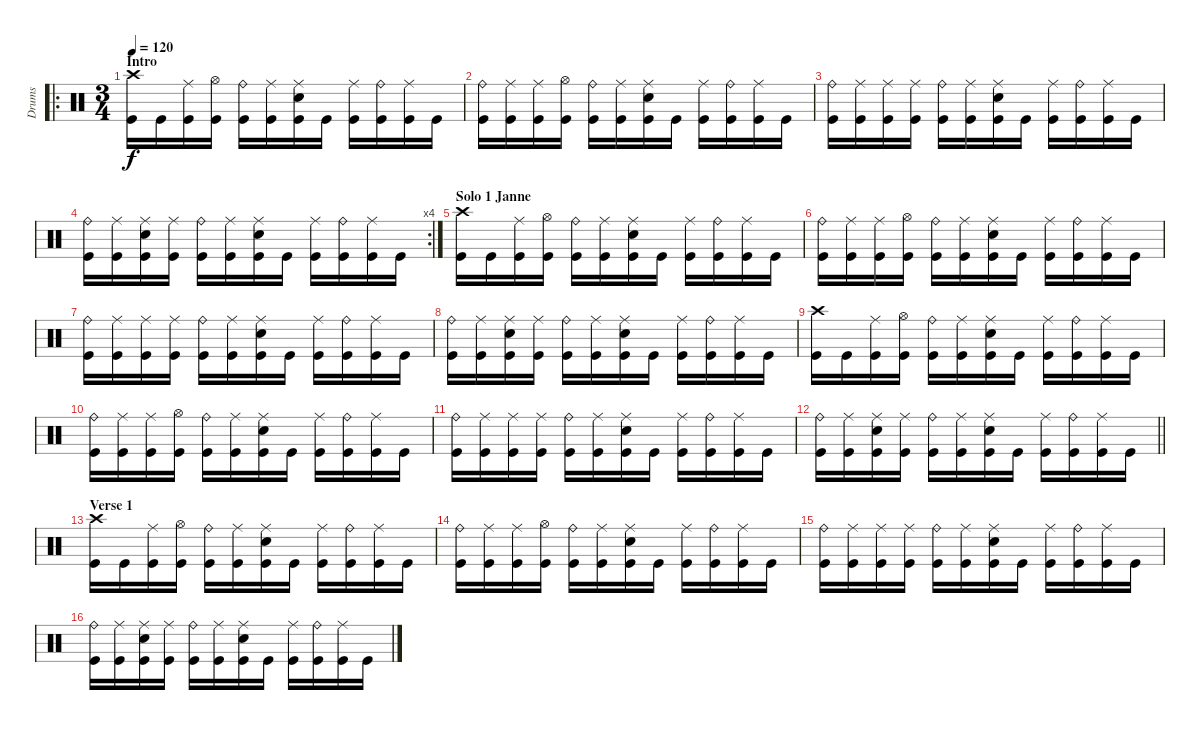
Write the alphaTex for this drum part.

\track ("Drums" "Drums") {instrument percussion}
\staff {score}
\articulation defaults
\ro
\ts (3 4)
\section ("" "Intro")
\tempo 120
\clef neutral
\ks c
("Crash high (hit)" "Kick (hit)").16{dy f} "Kick (hit)".16 ("Ride (middle)" "Kick (hit)").16 ("Hi-Hat (open)" "Kick (hit)").16 ("Ride (bell)" "Kick (hit)").16 ("Ride (middle)" "Kick (hit)").16 ("Ride (middle)" "Electric Snare (hit)" "Kick (hit)").16 "Kick (hit)".16 ("Ride (middle)" "Kick (hit)").16 ("Ride (bell)" "Kick (hit)").16 ("Ride (middle)" "Kick (hit)").16 "Kick (hit)".16 |
("Ride (bell)" "Kick (hit)").16 ("Ride (middle)" "Kick (hit)").16 ("Ride (middle)" "Kick (hit)").16 ("Hi-Hat (open)" "Kick (hit)").16 ("Ride (bell)" "Kick (hit)").16 ("Ride (middle)" "Kick (hit)").16 ("Ride (middle)" "Electric Snare (hit)" "Kick (hit)").16 "Kick (hit)".16 ("Ride (middle)" "Kick (hit)").16 ("Ride (bell)" "Kick (hit)").16 ("Ride (middle)" "Kick (hit)").16 "Kick (hit)".16 |
("Ride (bell)" "Kick (hit)").16 ("Ride (middle)" "Kick (hit)").16 ("Ride (middle)" "Kick (hit)").16 ("Ride (middle)" "Kick (hit)").16 ("Ride (bell)" "Kick (hit)").16 ("Ride (middle)" "Kick (hit)").16 ("Ride (middle)" "Electric Snare (hit)" "Kick (hit)").16 "Kick (hit)".16 ("Ride (middle)" "Kick (hit)").16 ("Ride (bell)" "Kick (hit)").16 ("Ride (middle)" "Kick (hit)").16 "Kick (hit)".16 |
\rc 4
("Ride (bell)" "Kick (hit)").16 ("Ride (middle)" "Kick (hit)").16 ("Ride (middle)" "Electric Snare (hit)" "Kick (hit)").16 ("Ride (middle)" "Kick (hit)").16 ("Ride (bell)" "Kick (hit)").16 ("Ride (middle)" "Kick (hit)").16 ("Ride (middle)" "Electric Snare (hit)" "Kick (hit)").16 "Kick (hit)".16 ("Ride (middle)" "Kick (hit)").16 ("Ride (bell)" "Kick (hit)").16 ("Ride (middle)" "Kick (hit)").16 "Kick (hit)".16 |
\section ("" "Solo 1 Janne")
("Crash high (hit)" "Kick (hit)").16 "Kick (hit)".16 ("Ride (middle)" "Kick (hit)").16 ("Hi-Hat (open)" "Kick (hit)").16 ("Ride (bell)" "Kick (hit)").16 ("Ride (middle)" "Kick (hit)").16 ("Ride (middle)" "Electric Snare (hit)" "Kick (hit)").16 "Kick (hit)".16 ("Ride (middle)" "Kick (hit)").16 ("Ride (bell)" "Kick (hit)").16 ("Ride (middle)" "Kick (hit)").16 "Kick (hit)".16 |
("Ride (bell)" "Kick (hit)").16 ("Ride (middle)" "Kick (hit)").16 ("Ride (middle)" "Kick (hit)").16 ("Hi-Hat (open)" "Kick (hit)").16 ("Ride (bell)" "Kick (hit)").16 ("Ride (middle)" "Kick (hit)").16 ("Ride (middle)" "Electric Snare (hit)" "Kick (hit)").16 "Kick (hit)".16 ("Ride (middle)" "Kick (hit)").16 ("Ride (bell)" "Kick (hit)").16 ("Ride (middle)" "Kick (hit)").16 "Kick (hit)".16 |
("Ride (bell)" "Kick (hit)").16 ("Ride (middle)" "Kick (hit)").16 ("Ride (middle)" "Kick (hit)").16 ("Ride (middle)" "Kick (hit)").16 ("Ride (bell)" "Kick (hit)").16 ("Ride (middle)" "Kick (hit)").16 ("Ride (middle)" "Electric Snare (hit)" "Kick (hit)").16 "Kick (hit)".16 ("Ride (middle)" "Kick (hit)").16 ("Ride (bell)" "Kick (hit)").16 ("Ride (middle)" "Kick (hit)").16 "Kick (hit)".16 |
("Ride (bell)" "Kick (hit)").16 ("Ride (middle)" "Kick (hit)").16 ("Ride (middle)" "Electric Snare (hit)" "Kick (hit)").16 ("Ride (middle)" "Kick (hit)").16 ("Ride (bell)" "Kick (hit)").16 ("Ride (middle)" "Kick (hit)").16 ("Ride (middle)" "Electric Snare (hit)" "Kick (hit)").16 "Kick (hit)".16 ("Ride (middle)" "Kick (hit)").16 ("Ride (bell)" "Kick (hit)").16 ("Ride (middle)" "Kick (hit)").16 "Kick (hit)".16 |
("Crash high (hit)" "Kick (hit)").16 "Kick (hit)".16 ("Ride (middle)" "Kick (hit)").16 ("Hi-Hat (open)" "Kick (hit)").16 ("Ride (bell)" "Kick (hit)").16 ("Ride (middle)" "Kick (hit)").16 ("Ride (middle)" "Electric Snare (hit)" "Kick (hit)").16 "Kick (hit)".16 ("Ride (middle)" "Kick (hit)").16 ("Ride (bell)" "Kick (hit)").16 ("Ride (middle)" "Kick (hit)").16 "Kick (hit)".16 |
("Ride (bell)" "Kick (hit)").16 ("Ride (middle)" "Kick (hit)").16 ("Ride (middle)" "Kick (hit)").16 ("Hi-Hat (open)" "Kick (hit)").16 ("Ride (bell)" "Kick (hit)").16 ("Ride (middle)" "Kick (hit)").16 ("Ride (middle)" "Electric Snare (hit)" "Kick (hit)").16 "Kick (hit)".16 ("Ride (middle)" "Kick (hit)").16 ("Ride (bell)" "Kick (hit)").16 ("Ride (middle)" "Kick (hit)").16 "Kick (hit)".16 |
("Ride (bell)" "Kick (hit)").16 ("Ride (middle)" "Kick (hit)").16 ("Ride (middle)" "Kick (hit)").16 ("Ride (middle)" "Kick (hit)").16 ("Ride (bell)" "Kick (hit)").16 ("Ride (middle)" "Kick (hit)").16 ("Ride (middle)" "Electric Snare (hit)" "Kick (hit)").16 "Kick (hit)".16 ("Ride (middle)" "Kick (hit)").16 ("Ride (bell)" "Kick (hit)").16 ("Ride (middle)" "Kick (hit)").16 "Kick (hit)".16 |
\barLineRight lightlight
("Ride (bell)" "Kick (hit)").16 ("Ride (middle)" "Kick (hit)").16 ("Ride (middle)" "Electric Snare (hit)" "Kick (hit)").16 ("Ride (middle)" "Kick (hit)").16 ("Ride (bell)" "Kick (hit)").16 ("Ride (middle)" "Kick (hit)").16 ("Ride (middle)" "Electric Snare (hit)" "Kick (hit)").16 "Kick (hit)".16 ("Ride (middle)" "Kick (hit)").16 ("Ride (bell)" "Kick (hit)").16 ("Ride (middle)" "Kick (hit)").16 "Kick (hit)".16 |
\section ("" "Verse 1")
("Crash high (hit)" "Kick (hit)").16 "Kick (hit)".16 ("Ride (middle)" "Kick (hit)").16 ("Hi-Hat (open)" "Kick (hit)").16 ("Ride (bell)" "Kick (hit)").16 ("Ride (middle)" "Kick (hit)").16 ("Ride (middle)" "Electric Snare (hit)" "Kick (hit)").16 "Kick (hit)".16 ("Ride (middle)" "Kick (hit)").16 ("Ride (bell)" "Kick (hit)").16 ("Ride (middle)" "Kick (hit)").16 "Kick (hit)".16 |
("Ride (bell)" "Kick (hit)").16 ("Ride (middle)" "Kick (hit)").16 ("Ride (middle)" "Kick (hit)").16 ("Hi-Hat (open)" "Kick (hit)").16 ("Ride (bell)" "Kick (hit)").16 ("Ride (middle)" "Kick (hit)").16 ("Ride (middle)" "Electric Snare (hit)" "Kick (hit)").16 "Kick (hit)".16 ("Ride (middle)" "Kick (hit)").16 ("Ride (bell)" "Kick (hit)").16 ("Ride (middle)" "Kick (hit)").16 "Kick (hit)".16 |
("Ride (bell)" "Kick (hit)").16 ("Ride (middle)" "Kick (hit)").16 ("Ride (middle)" "Kick (hit)").16 ("Ride (middle)" "Kick (hit)").16 ("Ride (bell)" "Kick (hit)").16 ("Ride (middle)" "Kick (hit)").16 ("Ride (middle)" "Electric Snare (hit)" "Kick (hit)").16 "Kick (hit)".16 ("Ride (middle)" "Kick (hit)").16 ("Ride (bell)" "Kick (hit)").16 ("Ride (middle)" "Kick (hit)").16 "Kick (hit)".16 |
("Ride (bell)" "Kick (hit)").16 ("Ride (middle)" "Kick (hit)").16 ("Ride (middle)" "Electric Snare (hit)" "Kick (hit)").16 ("Ride (middle)" "Kick (hit)").16 ("Ride (bell)" "Kick (hit)").16 ("Ride (middle)" "Kick (hit)").16 ("Ride (middle)" "Electric Snare (hit)" "Kick (hit)").16 "Kick (hit)".16 ("Ride (middle)" "Kick (hit)").16 ("Ride (bell)" "Kick (hit)").16 ("Ride (middle)" "Kick (hit)").16 "Kick (hit)".16
